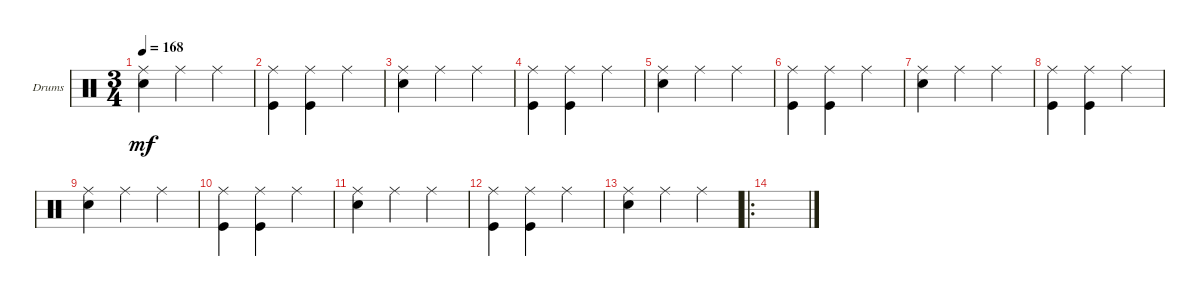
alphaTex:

\defaultSystemsLayout 4
\bracketExtendMode groupsimilarinstruments
\firstSystemTrackNameOrientation horizontal
\otherSystemsTrackNameOrientation horizontal
\track ("Drumkit" "Drums") {instrument percussion}
\staff {score}
\articulation defaults
\ts (3 4)
\tempo 168
\clef neutral
\ks c
("Ride (middle)" "Snare (hit) 2").4{dy mf} "Ride (middle)".4 "Ride (middle)".4 |
("Ride (middle)" "Kick (hit)").4 ("Ride (middle)" "Kick (hit)").4 "Ride (middle)".4 |
("Ride (middle)" "Snare (hit) 2").4 "Ride (middle)".4 "Ride (middle)".4 |
("Ride (middle)" "Kick (hit)").4 ("Ride (middle)" "Kick (hit)").4 "Ride (middle)".4 |
("Ride (middle)" "Snare (hit) 2").4 "Ride (middle)".4 "Ride (middle)".4 |
("Ride (middle)" "Kick (hit)").4 ("Ride (middle)" "Kick (hit)").4 "Ride (middle)".4 |
("Ride (middle)" "Snare (hit) 2").4 "Ride (middle)".4 "Ride (middle)".4 |
("Ride (middle)" "Kick (hit)").4 ("Ride (middle)" "Kick (hit)").4 "Ride (middle)".4 |
("Ride (middle)" "Snare (hit) 2").4 "Ride (middle)".4 "Ride (middle)".4 |
("Ride (middle)" "Kick (hit)").4 ("Ride (middle)" "Kick (hit)").4 "Ride (middle)".4 |
("Ride (middle)" "Snare (hit) 2").4 "Ride (middle)".4 "Ride (middle)".4 |
("Ride (middle)" "Kick (hit)").4 ("Ride (middle)" "Kick (hit)").4 "Ride (middle)".4 |
("Ride (middle)" "Snare (hit) 2").4 "Ride (middle)".4 "Ride (middle)".4 |
\ro
